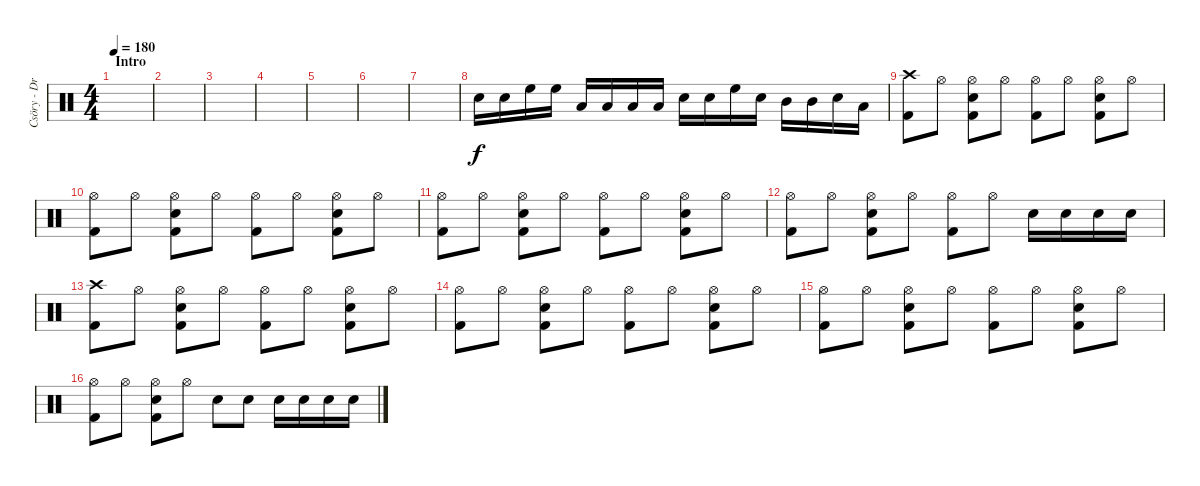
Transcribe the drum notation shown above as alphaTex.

\track ("Csöry - DrumZ" "Csöry - Dr") {instrument percussion}
\staff {score}
\articulation defaults
\ts (4 4)
\section ("" "Intro")
\tempo 180
\clef neutral
\ks c
|
|
|
|
|
|
|
"Snare (hit) 2".16 "Snare (hit) 2".16 "High Floor Tom (hit)".16 "High Floor Tom (hit)".16 "Low Tom (hit)".16 "Low Tom (hit)".16 "Low Floor Tom (hit)".16 "Low Floor Tom (hit)".16 "Snare (hit) 2".16 "Snare (hit) 2".16 "High Floor Tom (hit)".16 "Snare (hit) 2".16 "Mid Tom (hit)".16 "Mid Tom (hit)".16 "Snare (hit) 2".16 "Low Tom (hit)".16 |
("Crash high (hit)" "Kick (hit) 2").8 "Hi-Hat (open)".8 ("Hi-Hat (open)" "Snare (hit) 2" "Kick (hit) 2").8 "Hi-Hat (open)".8 ("Hi-Hat (open)" "Kick (hit) 2").8 "Hi-Hat (open)".8 ("Hi-Hat (open)" "Snare (hit) 2" "Kick (hit) 2").8 "Hi-Hat (open)".8 |
("Hi-Hat (open)" "Kick (hit) 2").8 "Hi-Hat (open)".8 ("Hi-Hat (open)" "Snare (hit) 2" "Kick (hit) 2").8 "Hi-Hat (open)".8 ("Hi-Hat (open)" "Kick (hit) 2").8 "Hi-Hat (open)".8 ("Hi-Hat (open)" "Snare (hit) 2" "Kick (hit) 2").8 "Hi-Hat (open)".8 |
("Hi-Hat (open)" "Kick (hit) 2").8 "Hi-Hat (open)".8 ("Hi-Hat (open)" "Snare (hit) 2" "Kick (hit) 2").8 "Hi-Hat (open)".8 ("Hi-Hat (open)" "Kick (hit) 2").8 "Hi-Hat (open)".8 ("Hi-Hat (open)" "Snare (hit) 2" "Kick (hit) 2").8 "Hi-Hat (open)".8 |
("Hi-Hat (open)" "Kick (hit) 2").8 "Hi-Hat (open)".8 ("Hi-Hat (open)" "Snare (hit) 2" "Kick (hit) 2").8 "Hi-Hat (open)".8 ("Hi-Hat (open)" "Kick (hit) 2").8 "Hi-Hat (open)".8 "Snare (hit) 2".16 "Snare (hit) 2".16 "Snare (hit) 2".16 "Snare (hit) 2".16 |
("Crash high (hit)" "Kick (hit) 2").8 "Hi-Hat (open)".8 ("Hi-Hat (open)" "Snare (hit) 2" "Kick (hit) 2").8 "Hi-Hat (open)".8 ("Hi-Hat (open)" "Kick (hit) 2").8 "Hi-Hat (open)".8 ("Hi-Hat (open)" "Snare (hit) 2" "Kick (hit) 2").8 "Hi-Hat (open)".8 |
("Hi-Hat (open)" "Kick (hit) 2").8 "Hi-Hat (open)".8 ("Hi-Hat (open)" "Snare (hit) 2" "Kick (hit) 2").8 "Hi-Hat (open)".8 ("Hi-Hat (open)" "Kick (hit) 2").8 "Hi-Hat (open)".8 ("Hi-Hat (open)" "Snare (hit) 2" "Kick (hit) 2").8 "Hi-Hat (open)".8 |
("Hi-Hat (open)" "Kick (hit) 2").8 "Hi-Hat (open)".8 ("Hi-Hat (open)" "Snare (hit) 2" "Kick (hit) 2").8 "Hi-Hat (open)".8 ("Hi-Hat (open)" "Kick (hit) 2").8 "Hi-Hat (open)".8 ("Hi-Hat (open)" "Snare (hit) 2" "Kick (hit) 2").8 "Hi-Hat (open)".8 |
("Hi-Hat (open)" "Kick (hit) 2").8 "Hi-Hat (open)".8 ("Hi-Hat (open)" "Snare (hit) 2" "Kick (hit) 2").8 "Hi-Hat (open)".8 "Snare (hit) 2".8 "Snare (hit) 2".8 "Snare (hit) 2".16 "Snare (hit) 2".16 "Snare (hit) 2".16 "Snare (hit) 2".16
